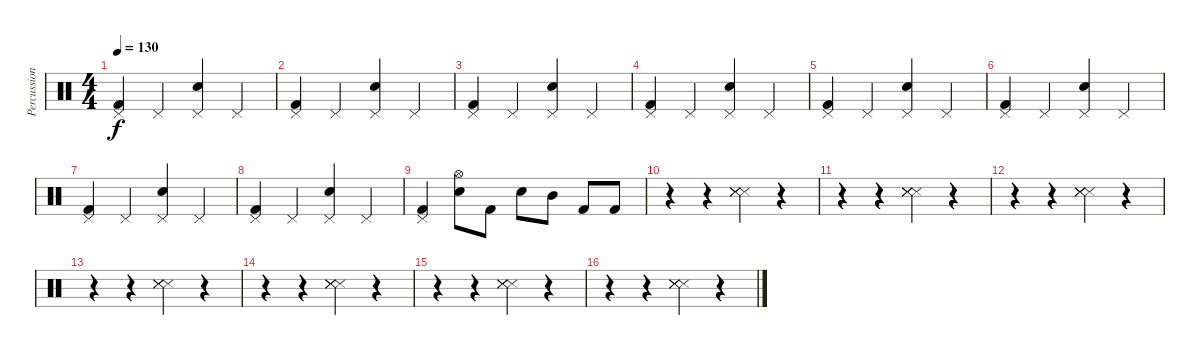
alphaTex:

\track ("Percussion 2" "Percussion") {instrument percussion}
\staff {score}
\articulation defaults
\ts (4 4)
\tempo 130
\clef neutral
\ks c
("Pedal Hi-Hat (hit)" "Kick (hit) 2").4{dy f} "Pedal Hi-Hat (hit)".4 ("Pedal Hi-Hat (hit)" "Snare (hit) 2").4 "Pedal Hi-Hat (hit)".4 |
("Pedal Hi-Hat (hit)" "Kick (hit) 2").4 "Pedal Hi-Hat (hit)".4 ("Pedal Hi-Hat (hit)" "Snare (hit) 2").4 "Pedal Hi-Hat (hit)".4 |
("Pedal Hi-Hat (hit)" "Kick (hit) 2").4 "Pedal Hi-Hat (hit)".4 ("Pedal Hi-Hat (hit)" "Snare (hit) 2").4 "Pedal Hi-Hat (hit)".4 |
("Pedal Hi-Hat (hit)" "Kick (hit) 2").4 "Pedal Hi-Hat (hit)".4 ("Pedal Hi-Hat (hit)" "Snare (hit) 2").4 "Pedal Hi-Hat (hit)".4 |
("Pedal Hi-Hat (hit)" "Kick (hit) 2").4 "Pedal Hi-Hat (hit)".4 ("Pedal Hi-Hat (hit)" "Snare (hit) 2").4 "Pedal Hi-Hat (hit)".4 |
("Pedal Hi-Hat (hit)" "Kick (hit) 2").4 "Pedal Hi-Hat (hit)".4 ("Pedal Hi-Hat (hit)" "Snare (hit) 2").4 "Pedal Hi-Hat (hit)".4 |
("Pedal Hi-Hat (hit)" "Kick (hit) 2").4 "Pedal Hi-Hat (hit)".4 ("Pedal Hi-Hat (hit)" "Snare (hit) 2").4 "Pedal Hi-Hat (hit)".4 |
("Pedal Hi-Hat (hit)" "Kick (hit) 2").4 "Pedal Hi-Hat (hit)".4 ("Pedal Hi-Hat (hit)" "Snare (hit) 2").4 "Pedal Hi-Hat (hit)".4 |
("Pedal Hi-Hat (hit)" "Kick (hit) 2").4 ("Snare (hit) 2" "Hi-Hat (open)").8 "Kick (hit) 2".8 "Snare (hit) 2".8 "Mid Tom (hit)".8 "Kick (hit) 2".8 "Kick (hit) 2".8 |
r.4 r.4 ("Snare (side stick) 3" "Snare (side stick) 3" "Snare (side stick) 3" "Snare (side stick) 3").4 r.4 |
r.4 r.4 ("Snare (side stick) 3" "Snare (side stick) 3" "Snare (side stick) 3" "Snare (side stick) 3").4 r.4 |
r.4 r.4 ("Snare (side stick) 3" "Snare (side stick) 3" "Snare (side stick) 3" "Snare (side stick) 3").4 r.4 |
r.4 r.4 ("Snare (side stick) 3" "Snare (side stick) 3" "Snare (side stick) 3" "Snare (side stick) 3").4 r.4 |
r.4 r.4 ("Snare (side stick) 3" "Snare (side stick) 3" "Snare (side stick) 3" "Snare (side stick) 3").4 r.4 |
r.4 r.4 ("Snare (side stick) 3" "Snare (side stick) 3" "Snare (side stick) 3" "Snare (side stick) 3").4 r.4 |
r.4 r.4 ("Snare (side stick) 3" "Snare (side stick) 3" "Snare (side stick) 3" "Snare (side stick) 3").4 r.4
